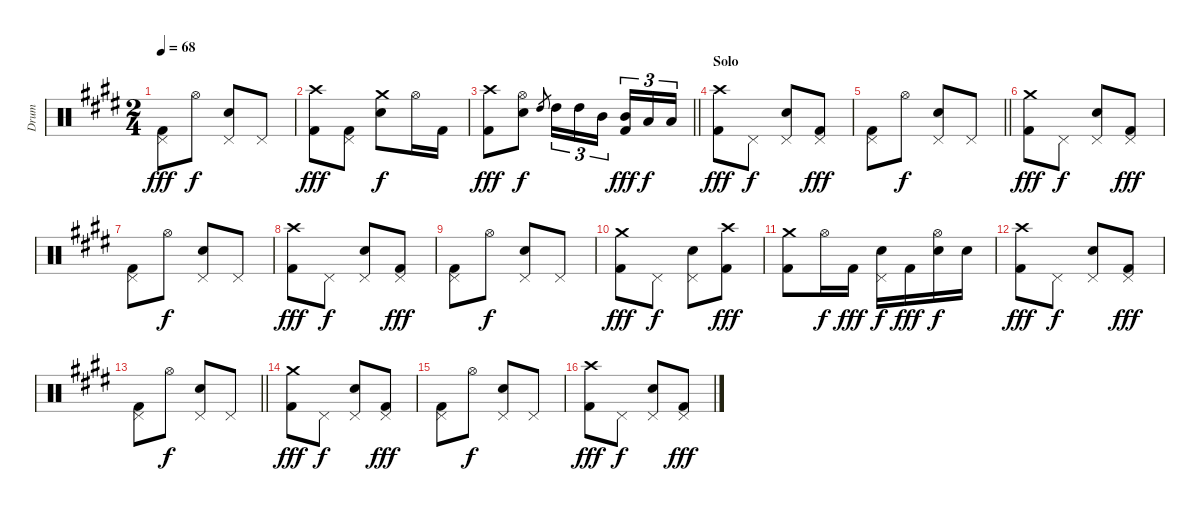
\track ("Drum" "Drum") {instrument percussion}
\staff {score}
\articulation defaults
\ts (2 4)
\tempo 68
\clef neutral
\ks e
("Pedal Hi-Hat (hit)" "Kick (hit) 2").8{dy fff} "Hi-Hat (open)".8{dy f} ("Pedal Hi-Hat (hit)" "Snare (hit) 2").8 "Pedal Hi-Hat (hit)".8 |
("Crash high (hit)" "Kick (hit) 2").8{dy fff} ("Pedal Hi-Hat (hit)" "Kick (hit) 2").8 ("Crash medium (hit)" "Snare (hit) 2").8{dy f} "Hi-Hat (open)".16 "Kick (hit) 2".16 |
\barLineRight lightlight
("Crash high (hit)" "Kick (hit) 2").8{dy fff} ("Hi-Hat (open)" "Snare (hit) 2").8{dy f} "High Tom (hit)".8{gr} "High Tom (hit)".16{tu (3 2)} "High Tom (hit)".16{tu (3 2)} "Mid Tom (hit)".16{tu (3 2) beam splitsecondary} ("Mid Tom (hit)" "Kick (hit) 2").16{tu (3 2) dy fff} "Low Tom (hit)".16{tu (3 2) dy f} "Low Tom (hit)".16{tu (3 2)} |
\section ("" "Solo")
("Crash high (hit)" "Kick (hit) 2").8{dy fff} "Pedal Hi-Hat (hit)".8{dy f} ("Pedal Hi-Hat (hit)" "Snare (hit) 2").8 ("Pedal Hi-Hat (hit)" "Kick (hit) 2").8{dy fff} |
\barLineRight lightlight
("Pedal Hi-Hat (hit)" "Kick (hit) 2").8 "Hi-Hat (open)".8{dy f} ("Pedal Hi-Hat (hit)" "Snare (hit) 2").8 "Pedal Hi-Hat (hit)".8 |
("Crash medium (hit)" "Kick (hit) 2").8{dy fff} "Pedal Hi-Hat (hit)".8{dy f} ("Pedal Hi-Hat (hit)" "Snare (hit) 2").8 ("Pedal Hi-Hat (hit)" "Kick (hit) 2").8{dy fff} |
("Pedal Hi-Hat (hit)" "Kick (hit) 2").8 "Hi-Hat (open)".8{dy f} ("Pedal Hi-Hat (hit)" "Snare (hit) 2").8 "Pedal Hi-Hat (hit)".8 |
("Crash high (hit)" "Kick (hit) 2").8{dy fff} "Pedal Hi-Hat (hit)".8{dy f} ("Pedal Hi-Hat (hit)" "Snare (hit) 2").8 ("Pedal Hi-Hat (hit)" "Kick (hit) 2").8{dy fff} |
("Pedal Hi-Hat (hit)" "Kick (hit) 2").8 "Hi-Hat (open)".8{dy f} ("Pedal Hi-Hat (hit)" "Snare (hit) 2").8 "Pedal Hi-Hat (hit)".8 |
("Crash medium (hit)" "Kick (hit) 2").8{dy fff} "Pedal Hi-Hat (hit)".8{dy f} ("Pedal Hi-Hat (hit)" "Snare (hit) 2").8 ("Crash high (hit)" "Kick (hit) 2").8{dy fff} |
("Crash medium (hit)" "Kick (hit) 2").8 "Hi-Hat (open)".16{dy f} "Kick (hit) 2".16{dy fff} ("Pedal Hi-Hat (hit)" "Snare (hit) 2").16{dy f} "Kick (hit) 2".16{dy fff} ("Hi-Hat (open)" "Snare (hit) 2").16{dy f} "Snare (hit) 2".16 |
("Crash high (hit)" "Kick (hit) 2").8{dy fff} "Pedal Hi-Hat (hit)".8{dy f} ("Pedal Hi-Hat (hit)" "Snare (hit) 2").8 ("Pedal Hi-Hat (hit)" "Kick (hit) 2").8{dy fff} |
\barLineRight lightlight
("Pedal Hi-Hat (hit)" "Kick (hit) 2").8 "Hi-Hat (open)".8{dy f} ("Pedal Hi-Hat (hit)" "Snare (hit) 2").8 "Pedal Hi-Hat (hit)".8 |
("Crash medium (hit)" "Kick (hit) 2").8{dy fff} "Pedal Hi-Hat (hit)".8{dy f} ("Pedal Hi-Hat (hit)" "Snare (hit) 2").8 ("Pedal Hi-Hat (hit)" "Kick (hit) 2").8{dy fff} |
("Pedal Hi-Hat (hit)" "Kick (hit) 2").8 "Hi-Hat (open)".8{dy f} ("Pedal Hi-Hat (hit)" "Snare (hit) 2").8 "Pedal Hi-Hat (hit)".8 |
("Crash high (hit)" "Kick (hit) 2").8{dy fff} "Pedal Hi-Hat (hit)".8{dy f} ("Pedal Hi-Hat (hit)" "Snare (hit) 2").8 ("Pedal Hi-Hat (hit)" "Kick (hit) 2").8{dy fff}
